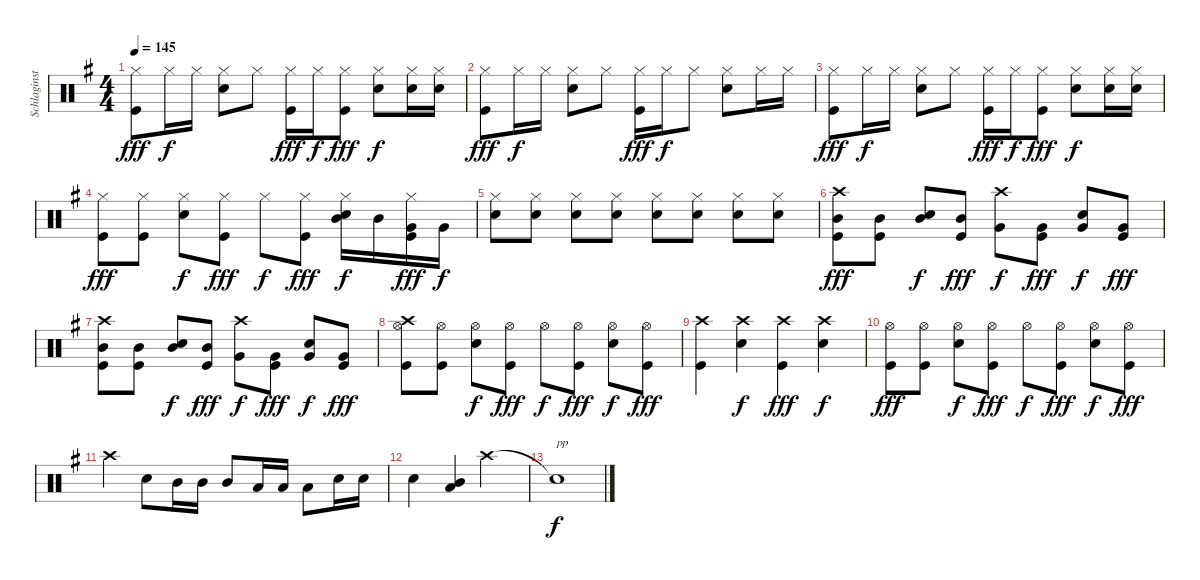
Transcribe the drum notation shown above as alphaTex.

\track ("Schlaginstrumente - Auswahl" "Schlaginst") {instrument percussion}
\staff {score}
\articulation defaults
\ts (4 4)
\tempo 145
\clef neutral
\ks eminor
("Hi-Hat (closed)" "Kick (hit)").8{dy fff} "Hi-Hat (closed)".16{dy f} "Hi-Hat (closed)".16 ("Hi-Hat (closed)" "Snare (hit) 2").8 "Hi-Hat (closed)".8 ("Hi-Hat (closed)" "Kick (hit)").16{dy fff} "Hi-Hat (closed)".16{dy f} ("Hi-Hat (closed)" "Kick (hit)").8{dy fff} ("Hi-Hat (closed)" "Snare (hit) 2").8{dy f} ("Hi-Hat (closed)" "Snare (hit) 2").16 ("Hi-Hat (closed)" "Snare (hit) 2").16 |
("Hi-Hat (closed)" "Kick (hit)").8{dy fff} "Hi-Hat (closed)".16{dy f} "Hi-Hat (closed)".16 ("Hi-Hat (closed)" "Snare (hit) 2").8 "Hi-Hat (closed)".8 ("Hi-Hat (closed)" "Kick (hit)").16{dy fff} "Hi-Hat (closed)".16{dy f} "Hi-Hat (closed)".8 ("Hi-Hat (closed)" "Snare (hit) 2").8 "Hi-Hat (closed)".16 "Hi-Hat (closed)".16 |
("Hi-Hat (closed)" "Kick (hit)").8{dy fff} "Hi-Hat (closed)".16{dy f} "Hi-Hat (closed)".16 ("Hi-Hat (closed)" "Snare (hit) 2").8 "Hi-Hat (closed)".8 ("Hi-Hat (closed)" "Kick (hit)").16{dy fff} "Hi-Hat (closed)".16{dy f} ("Hi-Hat (closed)" "Kick (hit)").8{dy fff} ("Hi-Hat (closed)" "Snare (hit) 2").8{dy f} ("Hi-Hat (closed)" "Snare (hit) 2").16 ("Hi-Hat (closed)" "Snare (hit) 2").16 |
("Hi-Hat (closed)" "Kick (hit)").8{dy fff} ("Hi-Hat (closed)" "Kick (hit)").8 ("Hi-Hat (closed)" "Snare (hit) 2").8{dy f} ("Hi-Hat (closed)" "Kick (hit)").8{dy fff} "Hi-Hat (closed)".8{dy f} ("Hi-Hat (closed)" "Kick (hit)").8{dy fff} ("Hi-Hat (closed)" "Mid Tom (hit)" "Snare (hit) 2").16{dy f} "Mid Tom (hit)".16 ("Hi-Hat (closed)" "Very Low Tom (hit)" "Kick (hit)").16{dy fff} "Very Low Tom (hit)".16{dy f} |
("Hi-Hat (closed)" "Snare (hit) 2").8 ("Hi-Hat (closed)" "Snare (hit) 2").8 ("Hi-Hat (closed)" "Snare (hit) 2").8 ("Hi-Hat (closed)" "Snare (hit) 2").8 ("Hi-Hat (closed)" "Snare (hit) 2").8 ("Hi-Hat (closed)" "Snare (hit) 2").8 ("Hi-Hat (closed)" "Snare (hit) 2").8 ("Hi-Hat (closed)" "Snare (hit) 2").8 |
("Mid Tom (hit)" "Crash high (hit)" "Kick (hit)").8{dy fff} ("Mid Tom (hit)" "Kick (hit)").8 ("Mid Tom (hit)" "Snare (hit) 2").8{dy f} ("Mid Tom (hit)" "Kick (hit)").8{dy fff} ("Very Low Tom (hit)" "Crash high (hit)").8{dy f} ("Very Low Tom (hit)" "Kick (hit)").8{dy fff} ("Very Low Tom (hit)" "Snare (hit) 2").8{dy f} ("Very Low Tom (hit)" "Kick (hit)").8{dy fff} |
("Mid Tom (hit)" "Crash high (hit)" "Kick (hit)").8 ("Mid Tom (hit)" "Kick (hit)").8 ("Mid Tom (hit)" "Snare (hit) 2").8{dy f} ("Mid Tom (hit)" "Kick (hit)").8{dy fff} ("Very Low Tom (hit)" "Crash high (hit)").8{dy f} ("Very Low Tom (hit)" "Kick (hit)").8{dy fff} ("Very Low Tom (hit)" "Snare (hit) 2").8{dy f} ("Very Low Tom (hit)" "Kick (hit)").8{dy fff} |
("Hi-Hat (open)" "Crash high (hit)" "Kick (hit)").8 ("Hi-Hat (open)" "Kick (hit)").8 ("Hi-Hat (open)" "Snare (hit) 2").8{dy f} ("Hi-Hat (open)" "Kick (hit)").8{dy fff} "Hi-Hat (open)".8{dy f} ("Hi-Hat (open)" "Kick (hit)").8{dy fff} ("Hi-Hat (open)" "Snare (hit) 2").8{dy f} ("Hi-Hat (open)" "Kick (hit)").8{dy fff} |
("Crash high (hit)" "Kick (hit)").4 ("Crash high (hit)" "Snare (hit) 2").4{dy f} ("Crash high (hit)" "Kick (hit)").4{dy fff} ("Crash high (hit)" "Snare (hit) 2").4{dy f} |
("Hi-Hat (open)" "Kick (hit)").8{dy fff} ("Hi-Hat (open)" "Kick (hit)").8 ("Hi-Hat (open)" "Snare (hit) 2").8{dy f} ("Hi-Hat (open)" "Kick (hit)").8{dy fff} "Hi-Hat (open)".8{dy f} ("Hi-Hat (open)" "Kick (hit)").8{dy fff} ("Hi-Hat (open)" "Snare (hit) 2").8{dy f} ("Hi-Hat (open)" "Kick (hit)").8{dy fff} |
"Crash high (hit)".4{volume 2} "Snare (hit) 2".8 "Mid Tom (hit)".16 "Mid Tom (hit)".16 "Mid Tom (hit)".8 "Low Tom (hit)".16 "Low Tom (hit)".16 "Low Tom (hit)".8 "Snare (hit) 2".16 "Snare (hit) 2".16 |
"Snare (hit) 2".4 ("Mid Tom (hit)" "Low Tom (hit)").4 "Crash high (hit)".2 |
"Snare (hit)"{t}.1{txt "pp" dy f}
